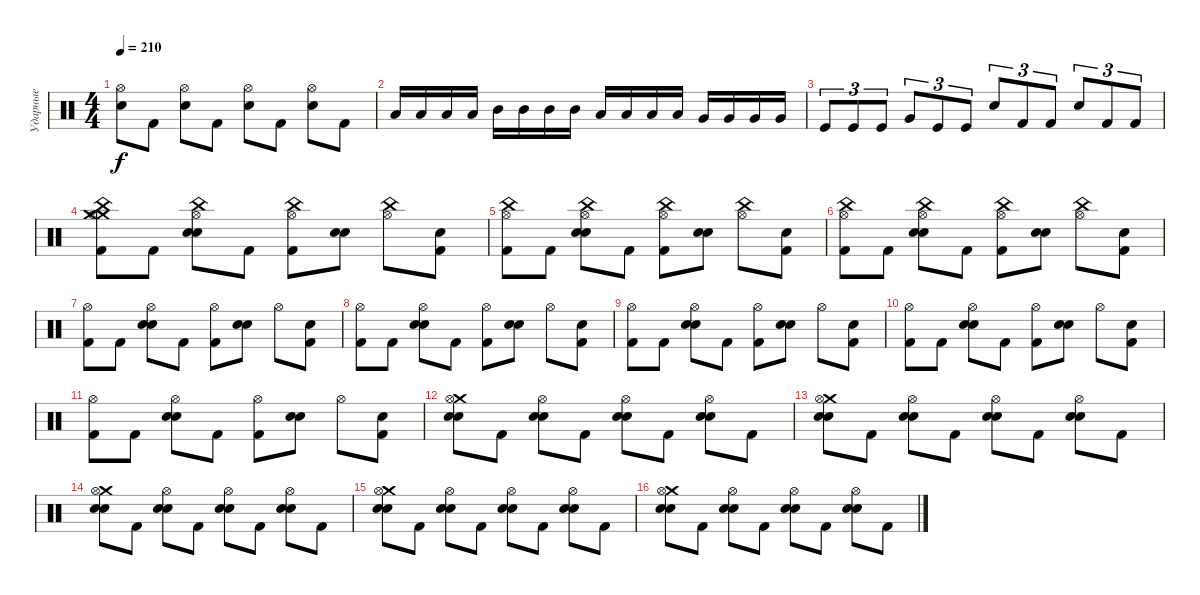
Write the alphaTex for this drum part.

\track ("Ударные" "Ударные") {instrument percussion}
\staff {score}
\articulation defaults
\ts (4 4)
\tempo 210
\clef neutral
\ks c
("Hi-Hat (open)" "Electric Snare (hit)").8{dy f} "Kick (hit) 2".8 ("Hi-Hat (open)" "Electric Snare (hit)").8 "Kick (hit) 2".8 ("Hi-Hat (open)" "Electric Snare (hit)").8 "Kick (hit) 2".8 ("Hi-Hat (open)" "Electric Snare (hit)").8 "Kick (hit) 2".8 |
"Low Tom (hit)".16 "Low Tom (hit)".16 "Low Tom (hit)".16 "Low Tom (hit)".16 "Mid Tom (hit)".16 "Mid Tom (hit)".16 "Mid Tom (hit)".16 "Mid Tom (hit)".16 "Low Tom (hit)".16 "Low Tom (hit)".16 "Low Tom (hit)".16 "Low Tom (hit)".16 "Very Low Tom (hit)".16 "Very Low Tom (hit)".16 "Very Low Tom (hit)".16 "Very Low Tom (hit)".16 |
"Kick (hit)".8{tu (3 2)} "Kick (hit)".8{tu (3 2)} "Kick (hit)".8{tu (3 2)} "Very Low Tom (hit)".8{tu (3 2)} "Kick (hit)".8{tu (3 2)} "Kick (hit)".8{tu (3 2)} "Electric Snare (hit)".8{tu (3 2)} "Kick (hit) 2".8{tu (3 2)} "Kick (hit) 2".8{tu (3 2)} "Electric Snare (hit)".8{tu (3 2)} "Kick (hit) 2".8{tu (3 2)} "Kick (hit) 2".8{tu (3 2)} |
("Crash medium (hit)" "Hi-Hat (open)" "Crash medium (hit)" "China (hit)" "Kick (hit) 2").8 "Kick (hit) 2".8 ("China (hit)" "Hi-Hat (open)" "Electric Snare (hit)" "Snare (hit) 2").8 "Kick (hit) 2".8 ("China (hit)" "Hi-Hat (open)" "Kick (hit) 2").8 ("Electric Snare (hit)" "Snare (hit) 2").8 ("China (hit)" "Hi-Hat (open)").8 ("Kick (hit) 2" "Electric Snare (hit)").8 |
("China (hit)" "Hi-Hat (open)" "Kick (hit) 2").8 "Kick (hit) 2".8 ("China (hit)" "Hi-Hat (open)" "Electric Snare (hit)" "Snare (hit) 2").8 "Kick (hit) 2".8 ("China (hit)" "Hi-Hat (open)" "Kick (hit) 2").8 ("Electric Snare (hit)" "Snare (hit) 2").8 ("China (hit)" "Hi-Hat (open)").8 ("Kick (hit) 2" "Electric Snare (hit)").8 |
("China (hit)" "Hi-Hat (open)" "Kick (hit) 2").8 "Kick (hit) 2".8 ("China (hit)" "Hi-Hat (open)" "Electric Snare (hit)" "Snare (hit) 2").8 "Kick (hit) 2".8 ("China (hit)" "Hi-Hat (open)" "Kick (hit) 2").8 ("Electric Snare (hit)" "Snare (hit) 2").8 ("China (hit)" "Hi-Hat (open)").8 ("Kick (hit) 2" "Electric Snare (hit)").8 |
("Hi-Hat (open)" "Kick (hit) 2").8 "Kick (hit) 2".8 ("Hi-Hat (open)" "Electric Snare (hit)" "Snare (hit) 2").8 "Kick (hit) 2".8 ("Hi-Hat (open)" "Kick (hit) 2").8 ("Electric Snare (hit)" "Snare (hit) 2").8 "Hi-Hat (open)".8 ("Kick (hit) 2" "Electric Snare (hit)").8 |
("Hi-Hat (open)" "Kick (hit) 2").8 "Kick (hit) 2".8 ("Hi-Hat (open)" "Electric Snare (hit)" "Snare (hit) 2").8 "Kick (hit) 2".8 ("Hi-Hat (open)" "Kick (hit) 2").8 ("Electric Snare (hit)" "Snare (hit) 2").8 "Hi-Hat (open)".8 ("Kick (hit) 2" "Electric Snare (hit)").8 |
("Hi-Hat (open)" "Kick (hit) 2").8 "Kick (hit) 2".8 ("Hi-Hat (open)" "Electric Snare (hit)" "Snare (hit) 2").8 "Kick (hit) 2".8 ("Hi-Hat (open)" "Kick (hit) 2").8 ("Electric Snare (hit)" "Snare (hit) 2").8 "Hi-Hat (open)".8 ("Kick (hit) 2" "Electric Snare (hit)").8 |
("Hi-Hat (open)" "Kick (hit) 2").8 "Kick (hit) 2".8 ("Hi-Hat (open)" "Electric Snare (hit)" "Snare (hit) 2").8 "Kick (hit) 2".8 ("Hi-Hat (open)" "Kick (hit) 2").8 ("Electric Snare (hit)" "Snare (hit) 2").8 "Hi-Hat (open)".8 ("Kick (hit) 2" "Electric Snare (hit)").8 |
("Hi-Hat (open)" "Kick (hit) 2").8 "Kick (hit) 2".8 ("Hi-Hat (open)" "Electric Snare (hit)" "Snare (hit) 2").8 "Kick (hit) 2".8 ("Hi-Hat (open)" "Kick (hit) 2").8 ("Electric Snare (hit)" "Snare (hit) 2").8 "Hi-Hat (open)".8 ("Kick (hit) 2" "Electric Snare (hit)").8 |
("Crash medium (hit)" "Hi-Hat (open)" "Snare (hit) 2" "Electric Snare (hit)").8 "Kick (hit) 2".8 ("Hi-Hat (open)" "Snare (hit) 2" "Electric Snare (hit)").8 "Kick (hit) 2".8 ("Hi-Hat (open)" "Snare (hit) 2" "Electric Snare (hit)").8 "Kick (hit) 2".8 ("Hi-Hat (open)" "Snare (hit) 2" "Electric Snare (hit)").8 "Kick (hit) 2".8 |
("Crash medium (hit)" "Hi-Hat (open)" "Snare (hit) 2" "Electric Snare (hit)").8 "Kick (hit) 2".8 ("Hi-Hat (open)" "Snare (hit) 2" "Electric Snare (hit)").8 "Kick (hit) 2".8 ("Hi-Hat (open)" "Snare (hit) 2" "Electric Snare (hit)").8 "Kick (hit) 2".8 ("Hi-Hat (open)" "Snare (hit) 2" "Electric Snare (hit)").8 "Kick (hit) 2".8 |
("Crash medium (hit)" "Hi-Hat (open)" "Snare (hit) 2" "Electric Snare (hit)").8 "Kick (hit) 2".8 ("Hi-Hat (open)" "Snare (hit) 2" "Electric Snare (hit)").8 "Kick (hit) 2".8 ("Hi-Hat (open)" "Snare (hit) 2" "Electric Snare (hit)").8 "Kick (hit) 2".8 ("Hi-Hat (open)" "Snare (hit) 2" "Electric Snare (hit)").8 "Kick (hit) 2".8 |
("Crash medium (hit)" "Hi-Hat (open)" "Snare (hit) 2" "Electric Snare (hit)").8 "Kick (hit) 2".8 ("Hi-Hat (open)" "Snare (hit) 2" "Electric Snare (hit)").8 "Kick (hit) 2".8 ("Hi-Hat (open)" "Snare (hit) 2" "Electric Snare (hit)").8 "Kick (hit) 2".8 ("Hi-Hat (open)" "Snare (hit) 2" "Electric Snare (hit)").8 "Kick (hit) 2".8 |
("Crash medium (hit)" "Hi-Hat (open)" "Snare (hit) 2" "Electric Snare (hit)").8 "Kick (hit) 2".8 ("Hi-Hat (open)" "Snare (hit) 2" "Electric Snare (hit)").8 "Kick (hit) 2".8 ("Hi-Hat (open)" "Snare (hit) 2" "Electric Snare (hit)").8 "Kick (hit) 2".8 ("Hi-Hat (open)" "Snare (hit) 2" "Electric Snare (hit)").8 "Kick (hit) 2".8
